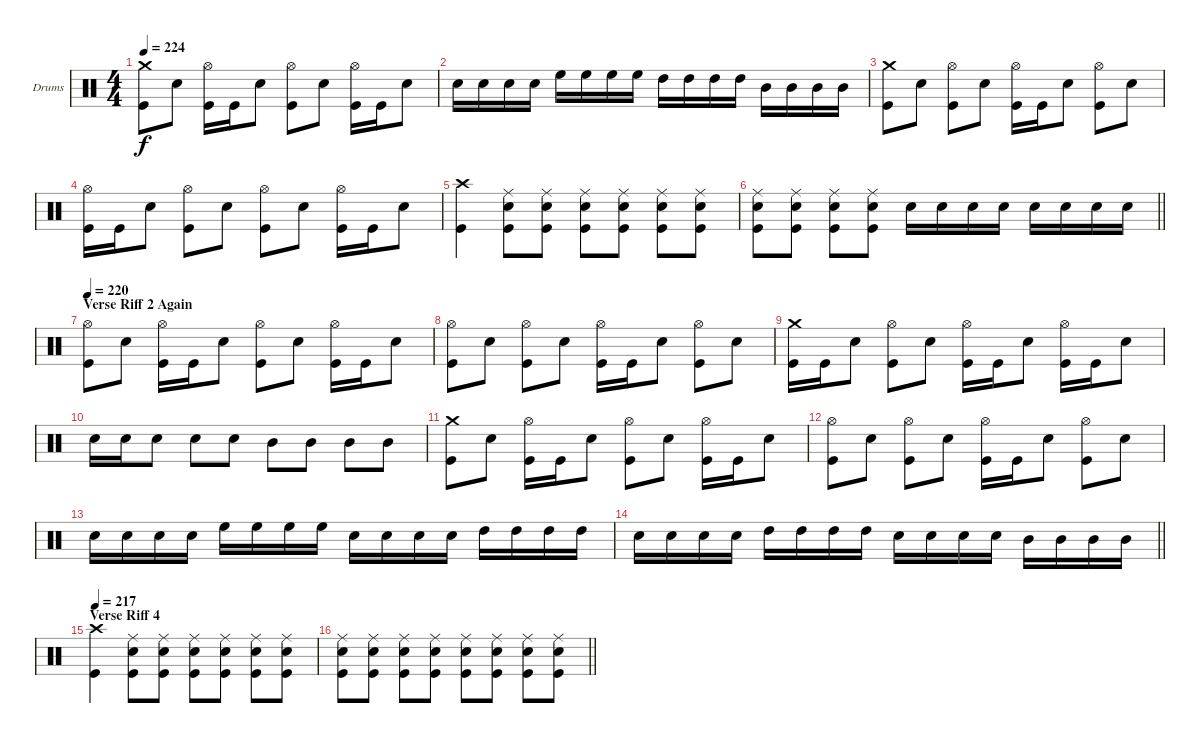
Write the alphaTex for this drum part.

\bracketExtendMode groupsimilarinstruments
\firstSystemTrackNameOrientation horizontal
\otherSystemsTrackNameOrientation horizontal
\track ("Drumkit" "Drums") {instrument percussion}
\staff {score}
\articulation defaults
\ts (4 4)
\tempo 224
\clef neutral
\ks c
("Crash medium (hit)" "Kick (hit)").8{dy f} "Snare (hit) 2".8 ("Hi-Hat (open)" "Kick (hit)").16 "Kick (hit)".16 "Snare (hit) 2".8 ("Hi-Hat (open)" "Kick (hit)").8 "Snare (hit) 2".8 ("Hi-Hat (open)" "Kick (hit)").16 "Kick (hit)".16 "Snare (hit) 2".8 |
"Snare (hit) 2".16 "Snare (hit) 2".16 "Snare (hit) 2".16 "Snare (hit) 2".16 "High Floor Tom (hit)".16 "High Floor Tom (hit)".16 "High Floor Tom (hit)".16 "High Floor Tom (hit)".16 "High Tom (hit)".16 "High Tom (hit)".16 "High Tom (hit)".16 "High Tom (hit)".16 "Mid Tom (hit)".16 "Mid Tom (hit)".16 "Mid Tom (hit)".16 "Mid Tom (hit)".16 |
("Crash medium (hit)" "Kick (hit)").8 "Snare (hit) 2".8 ("Hi-Hat (open)" "Kick (hit)").8 "Snare (hit) 2".8 ("Hi-Hat (open)" "Kick (hit)").16 "Kick (hit)".16 "Snare (hit) 2".8 ("Hi-Hat (open)" "Kick (hit)").8 "Snare (hit) 2".8 |
("Hi-Hat (open)" "Kick (hit)").16 "Kick (hit)".16 "Snare (hit) 2".8 ("Hi-Hat (open)" "Kick (hit)").8 "Snare (hit) 2".8 ("Hi-Hat (open)" "Kick (hit)").8 "Snare (hit) 2".8 ("Hi-Hat (open)" "Kick (hit)").16 "Kick (hit)".16 "Snare (hit) 2".8 |
("Crash high (hit)" "Kick (hit)").4 ("Ride (middle)" "Snare (hit) 2" "Kick (hit)").8 ("Ride (middle)" "Snare (hit) 2" "Kick (hit)").8 ("Ride (middle)" "Snare (hit) 2" "Kick (hit)").8 ("Ride (middle)" "Snare (hit) 2" "Kick (hit)").8 ("Ride (middle)" "Snare (hit) 2" "Kick (hit)").8 ("Ride (middle)" "Snare (hit) 2" "Kick (hit)").8 |
\barLineRight lightlight
("Ride (middle)" "Snare (hit) 2" "Kick (hit)").8 ("Ride (middle)" "Snare (hit) 2" "Kick (hit)").8 ("Ride (middle)" "Snare (hit) 2" "Kick (hit)").8 ("Ride (middle)" "Snare (hit) 2" "Kick (hit)").8 "Snare (hit) 2".16 "Snare (hit) 2".16 "Snare (hit) 2".16 "Snare (hit) 2".16 "Snare (hit) 2".16 "Snare (hit) 2".16 "Snare (hit) 2".16 "Snare (hit) 2".16 |
\section ("" "Verse Riff 2 Again")
\tempo 220
("Hi-Hat (open)" "Kick (hit)").8 "Snare (hit) 2".8 ("Hi-Hat (open)" "Kick (hit)").16 "Kick (hit)".16 "Snare (hit) 2".8 ("Hi-Hat (open)" "Kick (hit)").8 "Snare (hit) 2".8 ("Hi-Hat (open)" "Kick (hit)").16 "Kick (hit)".16 "Snare (hit) 2".8 |
("Hi-Hat (open)" "Kick (hit)").8 "Snare (hit) 2".8 ("Hi-Hat (open)" "Kick (hit)").8 "Snare (hit) 2".8 ("Hi-Hat (open)" "Kick (hit)").16 "Kick (hit)".16 "Snare (hit) 2".8 ("Hi-Hat (open)" "Kick (hit)").8 "Snare (hit) 2".8 |
("Crash medium (hit)" "Kick (hit)").16 "Kick (hit)".16 "Snare (hit) 2".8 ("Hi-Hat (open)" "Kick (hit)").8 "Snare (hit) 2".8 ("Hi-Hat (open)" "Kick (hit)").16 "Kick (hit)".16 "Snare (hit) 2".8 ("Hi-Hat (open)" "Kick (hit)").16 "Kick (hit)".16 "Snare (hit) 2".8 |
"Snare (hit) 2".16 "Snare (hit) 2".16 "Snare (hit) 2".8 "Snare (hit) 2".8 "Snare (hit) 2".8 "Mid Tom (hit)".8 "Mid Tom (hit)".8 "Mid Tom (hit)".8 "Mid Tom (hit)".8 |
("Crash medium (hit)" "Kick (hit)").8 "Snare (hit) 2".8 ("Hi-Hat (open)" "Kick (hit)").16 "Kick (hit)".16 "Snare (hit) 2".8 ("Hi-Hat (open)" "Kick (hit)").8 "Snare (hit) 2".8 ("Hi-Hat (open)" "Kick (hit)").16 "Kick (hit)".16 "Snare (hit) 2".8 |
("Hi-Hat (open)" "Kick (hit)").8 "Snare (hit) 2".8 ("Hi-Hat (open)" "Kick (hit)").8 "Snare (hit) 2".8 ("Hi-Hat (open)" "Kick (hit)").16 "Kick (hit)".16 "Snare (hit) 2".8 ("Hi-Hat (open)" "Kick (hit)").8 "Snare (hit) 2".8 |
"Snare (hit) 2".16 "Snare (hit) 2".16 "Snare (hit) 2".16 "Snare (hit) 2".16 "High Floor Tom (hit)".16 "High Floor Tom (hit)".16 "High Floor Tom (hit)".16 "High Floor Tom (hit)".16 "Snare (hit) 2".16 "Snare (hit) 2".16 "Snare (hit) 2".16 "Snare (hit) 2".16 "High Tom (hit)".16 "High Tom (hit)".16 "High Tom (hit)".16 "High Tom (hit)".16 |
\barLineRight lightlight "Snare (hit) 2".16 "Snare (hit) 2".16 "Snare (hit) 2".16 "Snare (hit) 2".16 "High Tom (hit)".16 "High Tom (hit)".16 "High Tom (hit)".16 "High Tom (hit)".16 "Snare (hit) 2".16 "Snare (hit) 2".16 "Snare (hit) 2".16 "Snare (hit) 2".16 "Mid Tom (hit)".16 "Mid Tom (hit)".16 "Mid Tom (hit)".16 "Mid Tom (hit)".16
|
\section ("" "Verse Riff 4")
\tempo 217
("Crash high (hit)" "Kick (hit)").4 ("Ride (middle)" "Snare (hit) 2" "Kick (hit)").8 ("Ride (middle)" "Snare (hit) 2" "Kick (hit)").8 ("Ride (middle)" "Snare (hit) 2" "Kick (hit)").8 ("Ride (middle)" "Snare (hit) 2" "Kick (hit)").8 ("Ride (middle)" "Snare (hit) 2" "Kick (hit)").8 ("Ride (middle)" "Snare (hit) 2" "Kick (hit)").8 |
\barLineRight lightlight
("Ride (middle)" "Snare (hit) 2" "Kick (hit)").8 ("Ride (middle)" "Snare (hit) 2" "Kick (hit)").8 ("Ride (middle)" "Snare (hit) 2" "Kick (hit)").8 ("Ride (middle)" "Snare (hit) 2" "Kick (hit)").8 ("Ride (middle)" "Snare (hit) 2" "Kick (hit)").8 ("Ride (middle)" "Snare (hit) 2" "Kick (hit)").8 ("Ride (middle)" "Snare (hit) 2" "Kick (hit)").8 ("Ride (middle)" "Snare (hit) 2" "Kick (hit)").8
